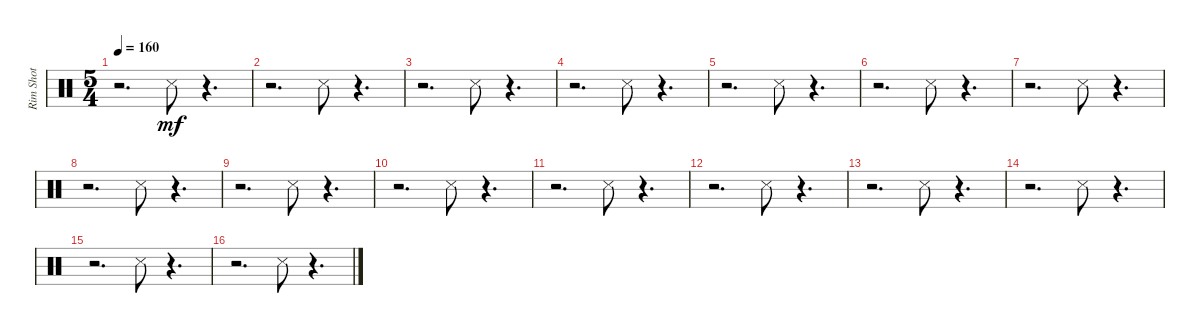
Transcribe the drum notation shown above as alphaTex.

\track ("Rim Shot" "Rim Shot") {instrument percussion}
\staff {score}
\articulation defaults
\ts (5 4)
\tempo 160
\clef neutral
\ks c
r.2{d dy mf} "Snare (side stick) 3".8 r.4{d} |
r.2{d} "Snare (side stick) 3".8 r.4{d} |
r.2{d} "Snare (side stick) 3".8 r.4{d} |
r.2{d} "Snare (side stick) 3".8 r.4{d} |
r.2{d} "Snare (side stick) 3".8 r.4{d} |
r.2{d} "Snare (side stick) 3".8 r.4{d} |
r.2{d} "Snare (side stick) 3".8 r.4{d} |
r.2{d} "Snare (side stick) 3".8 r.4{d} |
r.2{d} "Snare (side stick) 3".8 r.4{d} |
r.2{d} "Snare (side stick) 3".8 r.4{d} |
r.2{d} "Snare (side stick) 3".8 r.4{d} |
r.2{d} "Snare (side stick) 3".8 r.4{d} |
r.2{d} "Snare (side stick) 3".8 r.4{d} |
r.2{d} "Snare (side stick) 3".8 r.4{d} |
r.2{d} "Snare (side stick) 3".8 r.4{d} |
r.2{d} "Snare (side stick) 3".8 r.4{d}
